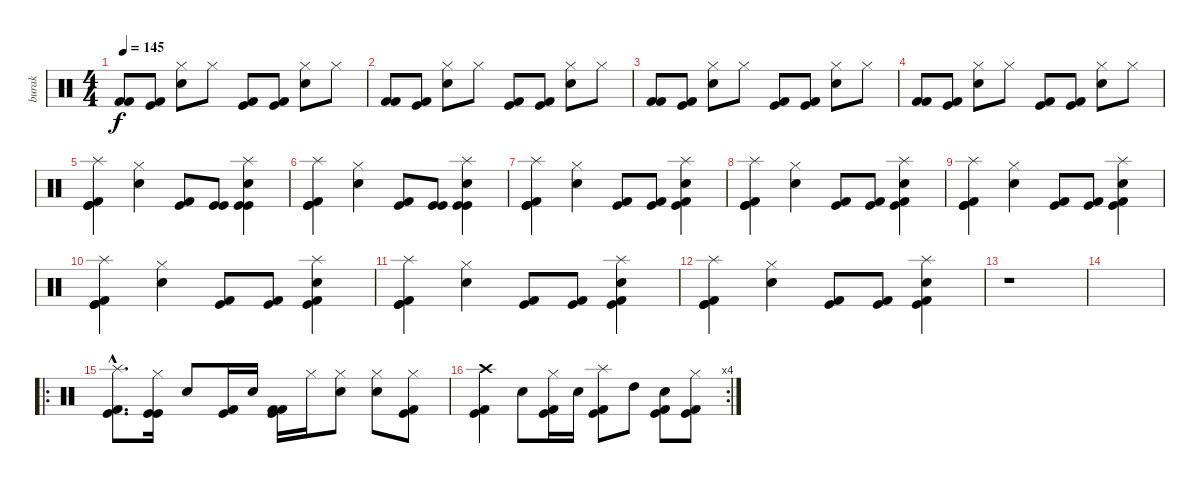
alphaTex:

\track ("burak" "burak") {instrument percussion}
\staff {score}
\articulation defaults
\ts (4 4)
\tempo 145
\clef neutral
\ks c
("Kick (hit) 2" "Kick (hit) 2").8{dy f} ("Kick (hit)" "Kick (hit) 2").8 ("Snare (hit) 2" "Hi-Hat (closed)").8 "Hi-Hat (closed)".8 ("Kick (hit)" "Kick (hit) 2").8 ("Kick (hit)" "Kick (hit) 2").8 ("Snare (hit) 2" "Hi-Hat (closed)").8 "Hi-Hat (closed)".8 |
("Kick (hit) 2" "Kick (hit) 2").8 ("Kick (hit)" "Kick (hit) 2").8 ("Snare (hit) 2" "Hi-Hat (closed)").8 "Hi-Hat (closed)".8 ("Kick (hit)" "Kick (hit) 2").8 ("Kick (hit)" "Kick (hit) 2").8 ("Snare (hit) 2" "Hi-Hat (closed)").8 "Hi-Hat (closed)".8 |
("Kick (hit) 2" "Kick (hit) 2").8 ("Kick (hit)" "Kick (hit) 2").8 ("Snare (hit) 2" "Hi-Hat (closed)").8 "Hi-Hat (closed)".8 ("Kick (hit)" "Kick (hit) 2").8 ("Kick (hit)" "Kick (hit) 2").8 ("Snare (hit) 2" "Hi-Hat (closed)").8 "Hi-Hat (closed)".8 |
("Kick (hit) 2" "Kick (hit) 2").8 ("Kick (hit)" "Kick (hit) 2").8 ("Snare (hit) 2" "Hi-Hat (closed)").8 "Hi-Hat (closed)".8 ("Kick (hit)" "Kick (hit) 2").8 ("Kick (hit)" "Kick (hit) 2").8 ("Snare (hit) 2" "Hi-Hat (closed)").8 "Hi-Hat (closed)".8 |
("Splash (hit)" "Kick (hit)" "Kick (hit)" "Kick (hit) 2").4 ("Hi-Hat (closed)" "Snare (hit) 2").4 ("Kick (hit)" "Kick (hit) 2").8 ("Kick (hit)" "Kick (hit)").8 ("Splash (hit)" "Snare (hit) 2" "Kick (hit)" "Kick (hit)").4 |
("Splash (hit)" "Kick (hit)" "Kick (hit)" "Kick (hit) 2").4 ("Hi-Hat (closed)" "Snare (hit) 2").4 ("Kick (hit)" "Kick (hit) 2").8 ("Kick (hit)" "Kick (hit)").8 ("Splash (hit)" "Snare (hit) 2" "Kick (hit)" "Kick (hit)").4 |
("Splash (hit)" "Kick (hit)" "Kick (hit)" "Kick (hit) 2").4 ("Hi-Hat (closed)" "Snare (hit) 2").4 ("Kick (hit)" "Kick (hit) 2").8 ("Kick (hit)" "Kick (hit) 2").8 ("Splash (hit)" "Snare (hit) 2" "Kick (hit)" "Kick (hit) 2").4 |
("Splash (hit)" "Kick (hit)" "Kick (hit)" "Kick (hit) 2").4 ("Hi-Hat (closed)" "Snare (hit) 2").4 ("Kick (hit)" "Kick (hit) 2").8 ("Kick (hit)" "Kick (hit) 2").8 ("Splash (hit)" "Snare (hit) 2" "Kick (hit)" "Kick (hit) 2").4 |
("Splash (hit)" "Kick (hit)" "Kick (hit)" "Kick (hit) 2").4 ("Hi-Hat (closed)" "Snare (hit) 2").4 ("Kick (hit)" "Kick (hit) 2").8 ("Kick (hit)" "Kick (hit) 2").8 ("Splash (hit)" "Snare (hit) 2" "Kick (hit)" "Kick (hit) 2").4 |
("Splash (hit)" "Kick (hit)" "Kick (hit)" "Kick (hit) 2").4 ("Hi-Hat (closed)" "Snare (hit) 2").4 ("Kick (hit)" "Kick (hit) 2").8 ("Kick (hit)" "Kick (hit) 2").8 ("Splash (hit)" "Snare (hit) 2" "Kick (hit)" "Kick (hit) 2").4 |
("Splash (hit)" "Kick (hit)" "Kick (hit)" "Kick (hit) 2").4 ("Hi-Hat (closed)" "Snare (hit) 2").4 ("Kick (hit)" "Kick (hit) 2").8 ("Kick (hit)" "Kick (hit) 2").8 ("Splash (hit)" "Snare (hit) 2" "Kick (hit)" "Kick (hit) 2").4 |
("Splash (hit)" "Kick (hit)" "Kick (hit)" "Kick (hit) 2").4 ("Hi-Hat (closed)" "Snare (hit) 2").4 ("Kick (hit)" "Kick (hit) 2").8 ("Kick (hit)" "Kick (hit) 2").8 ("Splash (hit)" "Snare (hit) 2" "Kick (hit)" "Kick (hit) 2").4 |
r.1 |
|
\ro
("Splash (hit)"{hac} "Kick (hit)"{hac} "Kick (hit) 2"{hac}).8{d} ("Hi-Hat (closed)" "Kick (hit)" "Kick (hit)").16 "Electric Snare (hit)".8 ("Kick (hit)" "Kick (hit) 2").16 "Electric Snare (hit)".16 ("Kick (hit) 2" "Kick (hit)" "Kick (hit) 2").16 "Hi-Hat (closed)".16 ("Hi-Hat (closed)" "Electric Snare (hit)").8 ("Hi-Hat (closed)" "Electric Snare (hit)").8 ("Hi-Hat (closed)" "Kick (hit)" "Kick (hit) 2").8 |
\rc 4
("Crash high (hit)" "Kick (hit)" "Kick (hit) 2").4 "Electric Snare (hit)".8 ("Hi-Hat (closed)" "Kick (hit)" "Kick (hit) 2").16 "Electric Snare (hit)".16 ("Splash (hit)" "Kick (hit)" "Kick (hit) 2").8 "High Tom (hit)".8 ("Electric Snare (hit)" "Kick (hit)" "Kick (hit) 2").8 ("Hi-Hat (closed)" "Kick (hit)" "Kick (hit) 2").8
